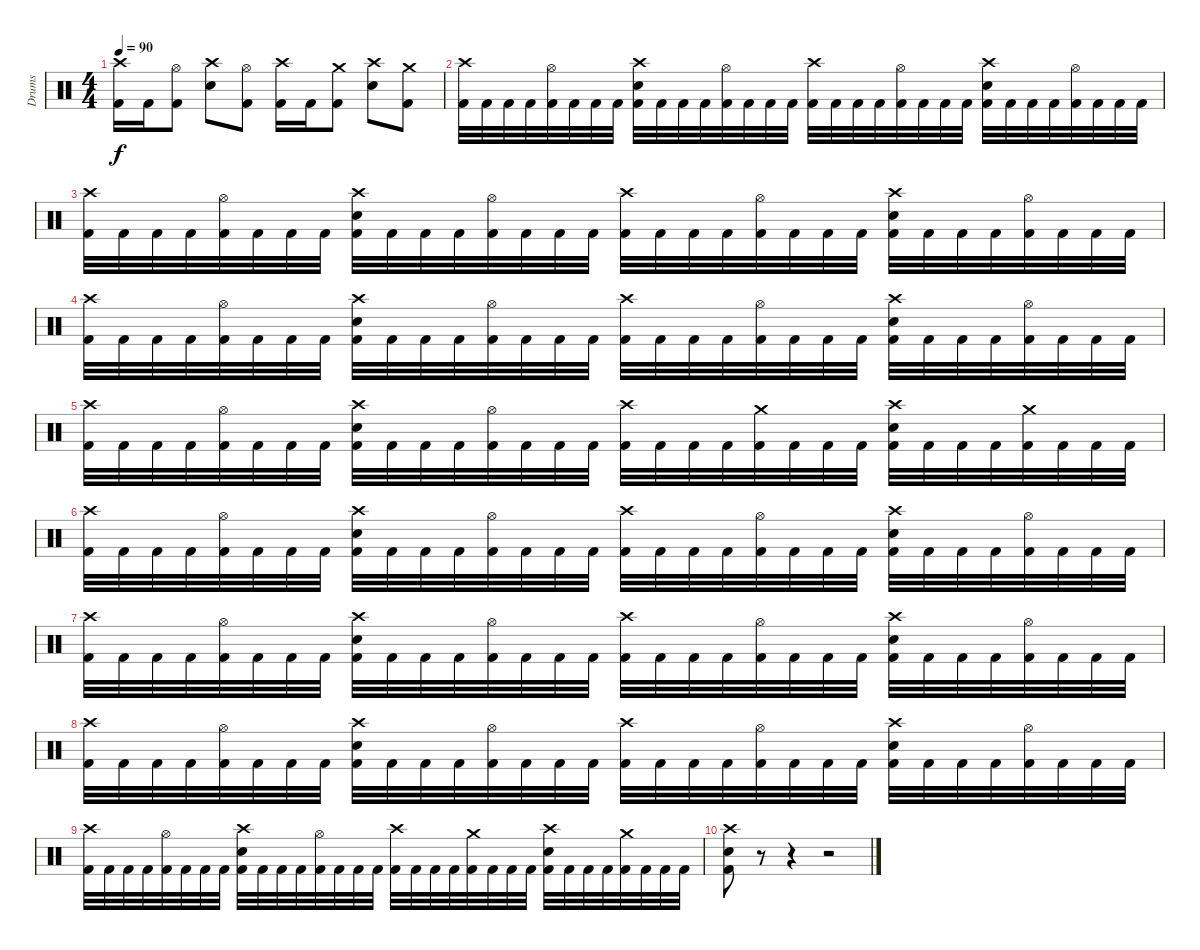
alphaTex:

\track ("Drums" "Drums") {instrument percussion}
\staff {score}
\articulation defaults
\ts (4 4)
\tempo 90
\clef neutral
\ks c
("Crash high (hit)" "Kick (hit) 2").16{dy f} "Kick (hit) 2".16 ("Hi-Hat (open)" "Kick (hit) 2").8 ("Crash high (hit)" "Electric Snare (hit)").8 ("Hi-Hat (open)" "Kick (hit) 2").8 ("Crash high (hit)" "Kick (hit) 2").16 "Kick (hit) 2".16 ("Crash medium (hit)" "Kick (hit) 2").8 ("Crash high (hit)" "Electric Snare (hit)").8 ("Crash medium (hit)" "Kick (hit) 2").8 |
("Crash high (hit)" "Kick (hit) 2").32 "Kick (hit) 2".32 "Kick (hit) 2".32 "Kick (hit) 2".32 ("Hi-Hat (open)" "Kick (hit) 2").32 "Kick (hit) 2".32 "Kick (hit) 2".32 "Kick (hit) 2".32 ("Crash high (hit)" "Electric Snare (hit)" "Kick (hit) 2").32 "Kick (hit) 2".32 "Kick (hit) 2".32 "Kick (hit) 2".32 ("Hi-Hat (open)" "Kick (hit) 2").32 "Kick (hit) 2".32 "Kick (hit) 2".32 "Kick (hit) 2".32 ("Crash high (hit)" "Kick (hit) 2").32 "Kick (hit) 2".32 "Kick (hit) 2".32 "Kick (hit) 2".32 ("Hi-Hat (open)" "Kick (hit) 2").32 "Kick (hit) 2".32 "Kick (hit) 2".32 "Kick (hit) 2".32 ("Crash high (hit)" "Electric Snare (hit)" "Kick (hit) 2").32 "Kick (hit) 2".32 "Kick (hit) 2".32 "Kick (hit) 2".32 ("Hi-Hat (open)" "Kick (hit) 2").32 "Kick (hit) 2".32 "Kick (hit) 2".32 "Kick (hit) 2".32 |
("Crash high (hit)" "Kick (hit) 2").32 "Kick (hit) 2".32 "Kick (hit) 2".32 "Kick (hit) 2".32 ("Hi-Hat (open)" "Kick (hit) 2").32 "Kick (hit) 2".32 "Kick (hit) 2".32 "Kick (hit) 2".32 ("Crash high (hit)" "Electric Snare (hit)" "Kick (hit) 2").32 "Kick (hit) 2".32 "Kick (hit) 2".32 "Kick (hit) 2".32 ("Hi-Hat (open)" "Kick (hit) 2").32 "Kick (hit) 2".32 "Kick (hit) 2".32 "Kick (hit) 2".32 ("Crash high (hit)" "Kick (hit) 2").32 "Kick (hit) 2".32 "Kick (hit) 2".32 "Kick (hit) 2".32 ("Hi-Hat (open)" "Kick (hit) 2").32 "Kick (hit) 2".32 "Kick (hit) 2".32 "Kick (hit) 2".32 ("Crash high (hit)" "Electric Snare (hit)" "Kick (hit) 2").32 "Kick (hit) 2".32 "Kick (hit) 2".32 "Kick (hit) 2".32 ("Hi-Hat (open)" "Kick (hit) 2").32 "Kick (hit) 2".32 "Kick (hit) 2".32 "Kick (hit) 2".32 |
("Crash high (hit)" "Kick (hit) 2").32 "Kick (hit) 2".32 "Kick (hit) 2".32 "Kick (hit) 2".32 ("Hi-Hat (open)" "Kick (hit) 2").32 "Kick (hit) 2".32 "Kick (hit) 2".32 "Kick (hit) 2".32 ("Crash high (hit)" "Electric Snare (hit)" "Kick (hit) 2").32 "Kick (hit) 2".32 "Kick (hit) 2".32 "Kick (hit) 2".32 ("Hi-Hat (open)" "Kick (hit) 2").32 "Kick (hit) 2".32 "Kick (hit) 2".32 "Kick (hit) 2".32 ("Crash high (hit)" "Kick (hit) 2").32 "Kick (hit) 2".32 "Kick (hit) 2".32 "Kick (hit) 2".32 ("Hi-Hat (open)" "Kick (hit) 2").32 "Kick (hit) 2".32 "Kick (hit) 2".32 "Kick (hit) 2".32 ("Crash high (hit)" "Electric Snare (hit)" "Kick (hit) 2").32 "Kick (hit) 2".32 "Kick (hit) 2".32 "Kick (hit) 2".32 ("Hi-Hat (open)" "Kick (hit) 2").32 "Kick (hit) 2".32 "Kick (hit) 2".32 "Kick (hit) 2".32 |
("Crash high (hit)" "Kick (hit) 2").32 "Kick (hit) 2".32 "Kick (hit) 2".32 "Kick (hit) 2".32 ("Hi-Hat (open)" "Kick (hit) 2").32 "Kick (hit) 2".32 "Kick (hit) 2".32 "Kick (hit) 2".32 ("Crash high (hit)" "Electric Snare (hit)" "Kick (hit) 2").32 "Kick (hit) 2".32 "Kick (hit) 2".32 "Kick (hit) 2".32 ("Hi-Hat (open)" "Kick (hit) 2").32 "Kick (hit) 2".32 "Kick (hit) 2".32 "Kick (hit) 2".32 ("Crash high (hit)" "Kick (hit) 2").32 "Kick (hit) 2".32 "Kick (hit) 2".32 "Kick (hit) 2".32 ("Crash medium (hit)" "Kick (hit) 2").32 "Kick (hit) 2".32 "Kick (hit) 2".32 "Kick (hit) 2".32 ("Crash high (hit)" "Electric Snare (hit)" "Kick (hit) 2").32 "Kick (hit) 2".32 "Kick (hit) 2".32 "Kick (hit) 2".32 ("Crash medium (hit)" "Kick (hit) 2").32 "Kick (hit) 2".32 "Kick (hit) 2".32 "Kick (hit) 2".32 |
("Crash high (hit)" "Kick (hit) 2").32 "Kick (hit) 2".32 "Kick (hit) 2".32 "Kick (hit) 2".32 ("Hi-Hat (open)" "Kick (hit) 2").32 "Kick (hit) 2".32 "Kick (hit) 2".32 "Kick (hit) 2".32 ("Crash high (hit)" "Electric Snare (hit)" "Kick (hit) 2").32 "Kick (hit) 2".32 "Kick (hit) 2".32 "Kick (hit) 2".32 ("Hi-Hat (open)" "Kick (hit) 2").32 "Kick (hit) 2".32 "Kick (hit) 2".32 "Kick (hit) 2".32 ("Crash high (hit)" "Kick (hit) 2").32 "Kick (hit) 2".32 "Kick (hit) 2".32 "Kick (hit) 2".32 ("Hi-Hat (open)" "Kick (hit) 2").32 "Kick (hit) 2".32 "Kick (hit) 2".32 "Kick (hit) 2".32 ("Crash high (hit)" "Electric Snare (hit)" "Kick (hit) 2").32 "Kick (hit) 2".32 "Kick (hit) 2".32 "Kick (hit) 2".32 ("Hi-Hat (open)" "Kick (hit) 2").32 "Kick (hit) 2".32 "Kick (hit) 2".32 "Kick (hit) 2".32 |
("Crash high (hit)" "Kick (hit) 2").32 "Kick (hit) 2".32 "Kick (hit) 2".32 "Kick (hit) 2".32 ("Hi-Hat (open)" "Kick (hit) 2").32 "Kick (hit) 2".32 "Kick (hit) 2".32 "Kick (hit) 2".32 ("Crash high (hit)" "Electric Snare (hit)" "Kick (hit) 2").32 "Kick (hit) 2".32 "Kick (hit) 2".32 "Kick (hit) 2".32 ("Hi-Hat (open)" "Kick (hit) 2").32 "Kick (hit) 2".32 "Kick (hit) 2".32 "Kick (hit) 2".32 ("Crash high (hit)" "Kick (hit) 2").32 "Kick (hit) 2".32 "Kick (hit) 2".32 "Kick (hit) 2".32 ("Hi-Hat (open)" "Kick (hit) 2").32 "Kick (hit) 2".32 "Kick (hit) 2".32 "Kick (hit) 2".32 ("Crash high (hit)" "Electric Snare (hit)" "Kick (hit) 2").32 "Kick (hit) 2".32 "Kick (hit) 2".32 "Kick (hit) 2".32 ("Hi-Hat (open)" "Kick (hit) 2").32 "Kick (hit) 2".32 "Kick (hit) 2".32 "Kick (hit) 2".32 |
("Crash high (hit)" "Kick (hit) 2").32 "Kick (hit) 2".32 "Kick (hit) 2".32 "Kick (hit) 2".32 ("Hi-Hat (open)" "Kick (hit) 2").32 "Kick (hit) 2".32 "Kick (hit) 2".32 "Kick (hit) 2".32 ("Crash high (hit)" "Electric Snare (hit)" "Kick (hit) 2").32 "Kick (hit) 2".32 "Kick (hit) 2".32 "Kick (hit) 2".32 ("Hi-Hat (open)" "Kick (hit) 2").32 "Kick (hit) 2".32 "Kick (hit) 2".32 "Kick (hit) 2".32 ("Crash high (hit)" "Kick (hit) 2").32 "Kick (hit) 2".32 "Kick (hit) 2".32 "Kick (hit) 2".32 ("Hi-Hat (open)" "Kick (hit) 2").32 "Kick (hit) 2".32 "Kick (hit) 2".32 "Kick (hit) 2".32 ("Crash high (hit)" "Electric Snare (hit)" "Kick (hit) 2").32 "Kick (hit) 2".32 "Kick (hit) 2".32 "Kick (hit) 2".32 ("Hi-Hat (open)" "Kick (hit) 2").32 "Kick (hit) 2".32 "Kick (hit) 2".32 "Kick (hit) 2".32 |
("Crash high (hit)" "Kick (hit) 2").32 "Kick (hit) 2".32 "Kick (hit) 2".32 "Kick (hit) 2".32 ("Hi-Hat (open)" "Kick (hit) 2").32 "Kick (hit) 2".32 "Kick (hit) 2".32 "Kick (hit) 2".32 ("Crash high (hit)" "Electric Snare (hit)" "Kick (hit) 2").32 "Kick (hit) 2".32 "Kick (hit) 2".32 "Kick (hit) 2".32 ("Hi-Hat (open)" "Kick (hit) 2").32 "Kick (hit) 2".32 "Kick (hit) 2".32 "Kick (hit) 2".32 ("Crash high (hit)" "Kick (hit) 2").32 "Kick (hit) 2".32 "Kick (hit) 2".32 "Kick (hit) 2".32 ("Crash medium (hit)" "Kick (hit) 2").32 "Kick (hit) 2".32 "Kick (hit) 2".32 "Kick (hit) 2".32 ("Crash high (hit)" "Electric Snare (hit)" "Kick (hit) 2").32 "Kick (hit) 2".32 "Kick (hit) 2".32 "Kick (hit) 2".32 ("Crash medium (hit)" "Kick (hit) 2").32 "Kick (hit) 2".32 "Kick (hit) 2".32 "Kick (hit) 2".32 |
("Crash high (hit)" "Electric Snare (hit)" "Kick (hit) 2").8 r.8 r.4 r.2
